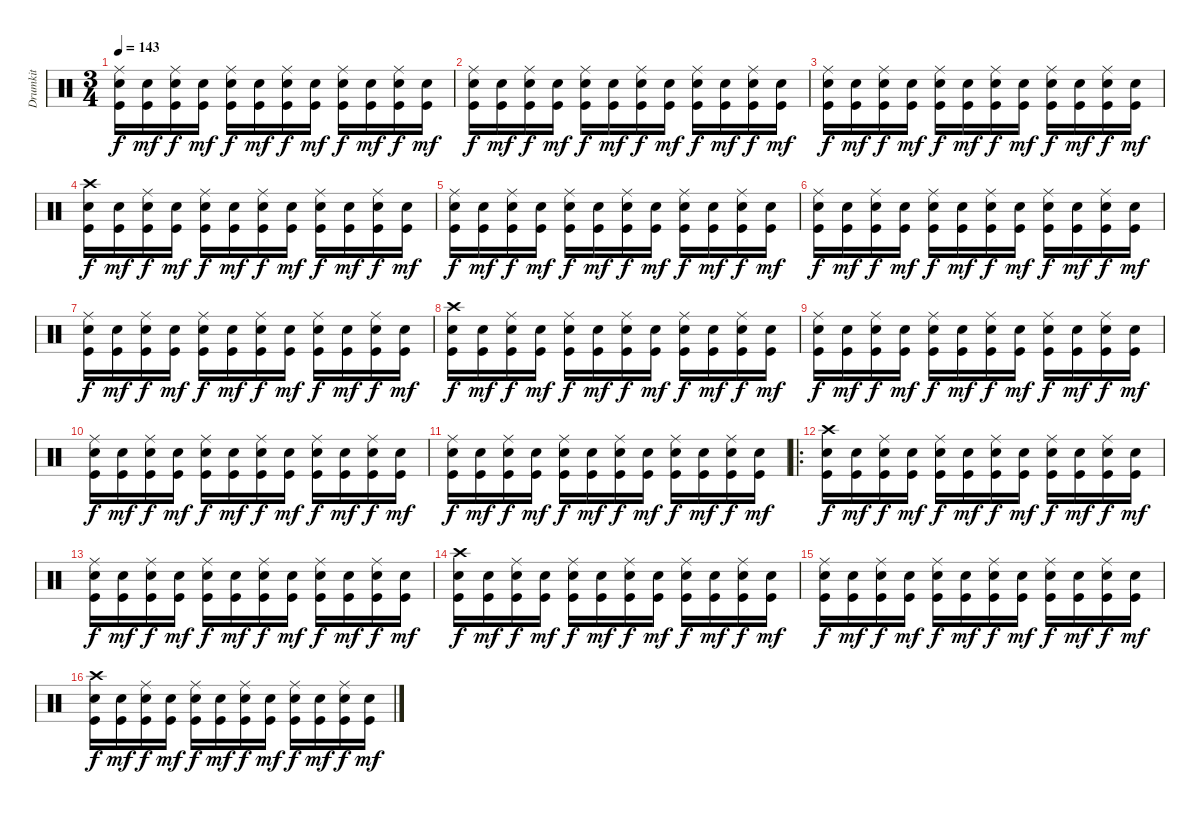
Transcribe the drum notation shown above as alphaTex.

\track ("Drumkit" "Drumkit") {instrument percussion}
\staff {score}
\articulation defaults
\ts (3 4)
\tempo 143
\clef neutral
\ks c
("Kick (hit)" "Snare (hit) 2" "Ride (middle)").16{dy f} ("Snare (hit) 2" "Kick (hit)").16{dy mf} ("Kick (hit)" "Snare (hit) 2" "Ride (middle)").16{dy f} ("Snare (hit) 2" "Kick (hit)").16{dy mf} ("Kick (hit)" "Snare (hit) 2" "Ride (middle)").16{dy f} ("Snare (hit) 2" "Kick (hit)").16{dy mf} ("Kick (hit)" "Snare (hit) 2" "Ride (middle)").16{dy f} ("Snare (hit) 2" "Kick (hit)").16{dy mf} ("Kick (hit)" "Snare (hit) 2" "Ride (middle)").16{dy f} ("Snare (hit) 2" "Kick (hit)").16{dy mf} ("Kick (hit)" "Snare (hit) 2" "Ride (middle)").16{dy f} ("Snare (hit) 2" "Kick (hit)").16{dy mf} |
("Kick (hit)" "Snare (hit) 2" "Ride (middle)").16{dy f} ("Snare (hit) 2" "Kick (hit)").16{dy mf} ("Kick (hit)" "Snare (hit) 2" "Ride (middle)").16{dy f} ("Snare (hit) 2" "Kick (hit)").16{dy mf} ("Kick (hit)" "Snare (hit) 2" "Ride (middle)").16{dy f} ("Snare (hit) 2" "Kick (hit)").16{dy mf} ("Kick (hit)" "Snare (hit) 2" "Ride (middle)").16{dy f} ("Snare (hit) 2" "Kick (hit)").16{dy mf} ("Kick (hit)" "Snare (hit) 2" "Ride (middle)").16{dy f} ("Snare (hit) 2" "Kick (hit)").16{dy mf} ("Kick (hit)" "Snare (hit) 2" "Ride (middle)").16{dy f} ("Snare (hit) 2" "Kick (hit)").16{dy mf} |
("Kick (hit)" "Snare (hit) 2" "Ride (middle)").16{dy f} ("Snare (hit) 2" "Kick (hit)").16{dy mf} ("Kick (hit)" "Snare (hit) 2" "Ride (middle)").16{dy f} ("Snare (hit) 2" "Kick (hit)").16{dy mf} ("Kick (hit)" "Snare (hit) 2" "Ride (middle)").16{dy f} ("Snare (hit) 2" "Kick (hit)").16{dy mf} ("Kick (hit)" "Snare (hit) 2" "Ride (middle)").16{dy f} ("Snare (hit) 2" "Kick (hit)").16{dy mf} ("Kick (hit)" "Snare (hit) 2" "Ride (middle)").16{dy f} ("Snare (hit) 2" "Kick (hit)").16{dy mf} ("Kick (hit)" "Snare (hit) 2" "Ride (middle)").16{dy f} ("Snare (hit) 2" "Kick (hit)").16{dy mf} |
("Kick (hit)" "Snare (hit) 2" "Crash high (hit)").16{dy f} ("Snare (hit) 2" "Kick (hit)").16{dy mf} ("Kick (hit)" "Snare (hit) 2" "Ride (middle)").16{dy f} ("Snare (hit) 2" "Kick (hit)").16{dy mf} ("Kick (hit)" "Snare (hit) 2" "Ride (middle)").16{dy f} ("Snare (hit) 2" "Kick (hit)").16{dy mf} ("Kick (hit)" "Snare (hit) 2" "Ride (middle)").16{dy f} ("Snare (hit) 2" "Kick (hit)").16{dy mf} ("Kick (hit)" "Snare (hit) 2" "Ride (middle)").16{dy f} ("Snare (hit) 2" "Kick (hit)").16{dy mf} ("Kick (hit)" "Snare (hit) 2" "Ride (middle)").16{dy f} ("Snare (hit) 2" "Kick (hit)").16{dy mf} |
("Kick (hit)" "Snare (hit) 2" "Ride (middle)").16{dy f} ("Snare (hit) 2" "Kick (hit)").16{dy mf} ("Kick (hit)" "Snare (hit) 2" "Ride (middle)").16{dy f} ("Snare (hit) 2" "Kick (hit)").16{dy mf} ("Kick (hit)" "Snare (hit) 2" "Ride (middle)").16{dy f} ("Snare (hit) 2" "Kick (hit)").16{dy mf} ("Kick (hit)" "Snare (hit) 2" "Ride (middle)").16{dy f} ("Snare (hit) 2" "Kick (hit)").16{dy mf} ("Kick (hit)" "Snare (hit) 2" "Ride (middle)").16{dy f} ("Snare (hit) 2" "Kick (hit)").16{dy mf} ("Kick (hit)" "Snare (hit) 2" "Ride (middle)").16{dy f} ("Snare (hit) 2" "Kick (hit)").16{dy mf} |
("Kick (hit)" "Snare (hit) 2" "Ride (middle)").16{dy f} ("Snare (hit) 2" "Kick (hit)").16{dy mf} ("Kick (hit)" "Snare (hit) 2" "Ride (middle)").16{dy f} ("Snare (hit) 2" "Kick (hit)").16{dy mf} ("Kick (hit)" "Snare (hit) 2" "Ride (middle)").16{dy f} ("Snare (hit) 2" "Kick (hit)").16{dy mf} ("Kick (hit)" "Snare (hit) 2" "Ride (middle)").16{dy f} ("Snare (hit) 2" "Kick (hit)").16{dy mf} ("Kick (hit)" "Snare (hit) 2" "Ride (middle)").16{dy f} ("Snare (hit) 2" "Kick (hit)").16{dy mf} ("Kick (hit)" "Snare (hit) 2" "Ride (middle)").16{dy f} ("Snare (hit) 2" "Kick (hit)").16{dy mf} |
("Kick (hit)" "Snare (hit) 2" "Ride (middle)").16{dy f} ("Snare (hit) 2" "Kick (hit)").16{dy mf} ("Kick (hit)" "Snare (hit) 2" "Ride (middle)").16{dy f} ("Snare (hit) 2" "Kick (hit)").16{dy mf} ("Kick (hit)" "Snare (hit) 2" "Ride (middle)").16{dy f} ("Snare (hit) 2" "Kick (hit)").16{dy mf} ("Kick (hit)" "Snare (hit) 2" "Ride (middle)").16{dy f} ("Snare (hit) 2" "Kick (hit)").16{dy mf} ("Kick (hit)" "Snare (hit) 2" "Ride (middle)").16{dy f} ("Snare (hit) 2" "Kick (hit)").16{dy mf} ("Kick (hit)" "Snare (hit) 2" "Ride (middle)").16{dy f} ("Snare (hit) 2" "Kick (hit)").16{dy mf} |
("Kick (hit)" "Snare (hit) 2" "Crash high (hit)").16{dy f} ("Snare (hit) 2" "Kick (hit)").16{dy mf} ("Kick (hit)" "Snare (hit) 2" "Ride (middle)").16{dy f} ("Snare (hit) 2" "Kick (hit)").16{dy mf} ("Kick (hit)" "Snare (hit) 2" "Ride (middle)").16{dy f} ("Snare (hit) 2" "Kick (hit)").16{dy mf} ("Kick (hit)" "Snare (hit) 2" "Ride (middle)").16{dy f} ("Snare (hit) 2" "Kick (hit)").16{dy mf} ("Kick (hit)" "Snare (hit) 2" "Ride (middle)").16{dy f} ("Snare (hit) 2" "Kick (hit)").16{dy mf} ("Kick (hit)" "Snare (hit) 2" "Ride (middle)").16{dy f} ("Snare (hit) 2" "Kick (hit)").16{dy mf} |
("Kick (hit)" "Snare (hit) 2" "Ride (middle)").16{dy f} ("Snare (hit) 2" "Kick (hit)").16{dy mf} ("Kick (hit)" "Snare (hit) 2" "Ride (middle)").16{dy f} ("Snare (hit) 2" "Kick (hit)").16{dy mf} ("Kick (hit)" "Snare (hit) 2" "Ride (middle)").16{dy f} ("Snare (hit) 2" "Kick (hit)").16{dy mf} ("Kick (hit)" "Snare (hit) 2" "Ride (middle)").16{dy f} ("Snare (hit) 2" "Kick (hit)").16{dy mf} ("Kick (hit)" "Snare (hit) 2" "Ride (middle)").16{dy f} ("Snare (hit) 2" "Kick (hit)").16{dy mf} ("Kick (hit)" "Snare (hit) 2" "Ride (middle)").16{dy f} ("Snare (hit) 2" "Kick (hit)").16{dy mf} |
("Kick (hit)" "Snare (hit) 2" "Ride (middle)").16{dy f} ("Snare (hit) 2" "Kick (hit)").16{dy mf} ("Kick (hit)" "Snare (hit) 2" "Ride (middle)").16{dy f} ("Snare (hit) 2" "Kick (hit)").16{dy mf} ("Kick (hit)" "Snare (hit) 2" "Ride (middle)").16{dy f} ("Snare (hit) 2" "Kick (hit)").16{dy mf} ("Kick (hit)" "Snare (hit) 2" "Ride (middle)").16{dy f} ("Snare (hit) 2" "Kick (hit)").16{dy mf} ("Kick (hit)" "Snare (hit) 2" "Ride (middle)").16{dy f} ("Snare (hit) 2" "Kick (hit)").16{dy mf} ("Kick (hit)" "Snare (hit) 2" "Ride (middle)").16{dy f} ("Snare (hit) 2" "Kick (hit)").16{dy mf} |
("Kick (hit)" "Snare (hit) 2" "Ride (middle)").16{dy f} ("Snare (hit) 2" "Kick (hit)").16{dy mf} ("Kick (hit)" "Snare (hit) 2" "Ride (middle)").16{dy f} ("Snare (hit) 2" "Kick (hit)").16{dy mf} ("Kick (hit)" "Snare (hit) 2" "Ride (middle)").16{dy f} ("Snare (hit) 2" "Kick (hit)").16{dy mf} ("Kick (hit)" "Snare (hit) 2" "Ride (middle)").16{dy f} ("Snare (hit) 2" "Kick (hit)").16{dy mf} ("Kick (hit)" "Snare (hit) 2" "Ride (middle)").16{dy f} ("Snare (hit) 2" "Kick (hit)").16{dy mf} ("Kick (hit)" "Snare (hit) 2" "Ride (middle)").16{dy f} ("Snare (hit) 2" "Kick (hit)").16{dy mf} |
\ro
("Kick (hit)" "Snare (hit) 2" "Crash high (hit)").16{dy f} ("Snare (hit) 2" "Kick (hit)").16{dy mf} ("Kick (hit)" "Snare (hit) 2" "Ride (middle)").16{dy f} ("Snare (hit) 2" "Kick (hit)").16{dy mf} ("Kick (hit)" "Snare (hit) 2" "Ride (middle)").16{dy f} ("Snare (hit) 2" "Kick (hit)").16{dy mf} ("Kick (hit)" "Snare (hit) 2" "Ride (middle)").16{dy f} ("Snare (hit) 2" "Kick (hit)").16{dy mf} ("Kick (hit)" "Snare (hit) 2" "Ride (middle)").16{dy f} ("Snare (hit) 2" "Kick (hit)").16{dy mf} ("Kick (hit)" "Snare (hit) 2" "Ride (middle)").16{dy f} ("Snare (hit) 2" "Kick (hit)").16{dy mf} |
("Kick (hit)" "Snare (hit) 2" "Ride (middle)").16{dy f} ("Snare (hit) 2" "Kick (hit)").16{dy mf} ("Kick (hit)" "Snare (hit) 2" "Ride (middle)").16{dy f} ("Snare (hit) 2" "Kick (hit)").16{dy mf} ("Kick (hit)" "Snare (hit) 2" "Ride (middle)").16{dy f} ("Snare (hit) 2" "Kick (hit)").16{dy mf} ("Kick (hit)" "Snare (hit) 2" "Ride (middle)").16{dy f} ("Snare (hit) 2" "Kick (hit)").16{dy mf} ("Kick (hit)" "Snare (hit) 2" "Ride (middle)").16{dy f} ("Snare (hit) 2" "Kick (hit)").16{dy mf} ("Kick (hit)" "Snare (hit) 2" "Ride (middle)").16{dy f} ("Snare (hit) 2" "Kick (hit)").16{dy mf} |
("Kick (hit)" "Snare (hit) 2" "Crash high (hit)").16{dy f} ("Snare (hit) 2" "Kick (hit)").16{dy mf} ("Kick (hit)" "Snare (hit) 2" "Ride (middle)").16{dy f} ("Snare (hit) 2" "Kick (hit)").16{dy mf} ("Kick (hit)" "Snare (hit) 2" "Ride (middle)").16{dy f} ("Snare (hit) 2" "Kick (hit)").16{dy mf} ("Kick (hit)" "Snare (hit) 2" "Ride (middle)").16{dy f} ("Snare (hit) 2" "Kick (hit)").16{dy mf} ("Kick (hit)" "Snare (hit) 2" "Ride (middle)").16{dy f} ("Snare (hit) 2" "Kick (hit)").16{dy mf} ("Kick (hit)" "Snare (hit) 2" "Ride (middle)").16{dy f} ("Snare (hit) 2" "Kick (hit)").16{dy mf} |
("Kick (hit)" "Snare (hit) 2" "Ride (middle)").16{dy f} ("Snare (hit) 2" "Kick (hit)").16{dy mf} ("Kick (hit)" "Snare (hit) 2" "Ride (middle)").16{dy f} ("Snare (hit) 2" "Kick (hit)").16{dy mf} ("Kick (hit)" "Snare (hit) 2" "Ride (middle)").16{dy f} ("Snare (hit) 2" "Kick (hit)").16{dy mf} ("Kick (hit)" "Snare (hit) 2" "Ride (middle)").16{dy f} ("Snare (hit) 2" "Kick (hit)").16{dy mf} ("Kick (hit)" "Snare (hit) 2" "Ride (middle)").16{dy f} ("Snare (hit) 2" "Kick (hit)").16{dy mf} ("Kick (hit)" "Snare (hit) 2" "Ride (middle)").16{dy f} ("Snare (hit) 2" "Kick (hit)").16{dy mf} |
("Kick (hit)" "Snare (hit) 2" "Crash high (hit)").16{dy f} ("Snare (hit) 2" "Kick (hit)").16{dy mf} ("Kick (hit)" "Snare (hit) 2" "Ride (middle)").16{dy f} ("Snare (hit) 2" "Kick (hit)").16{dy mf} ("Kick (hit)" "Snare (hit) 2" "Ride (middle)").16{dy f} ("Snare (hit) 2" "Kick (hit)").16{dy mf} ("Kick (hit)" "Snare (hit) 2" "Ride (middle)").16{dy f} ("Snare (hit) 2" "Kick (hit)").16{dy mf} ("Kick (hit)" "Snare (hit) 2" "Ride (middle)").16{dy f} ("Snare (hit) 2" "Kick (hit)").16{dy mf} ("Kick (hit)" "Snare (hit) 2" "Ride (middle)").16{dy f} ("Snare (hit) 2" "Kick (hit)").16{dy mf}
